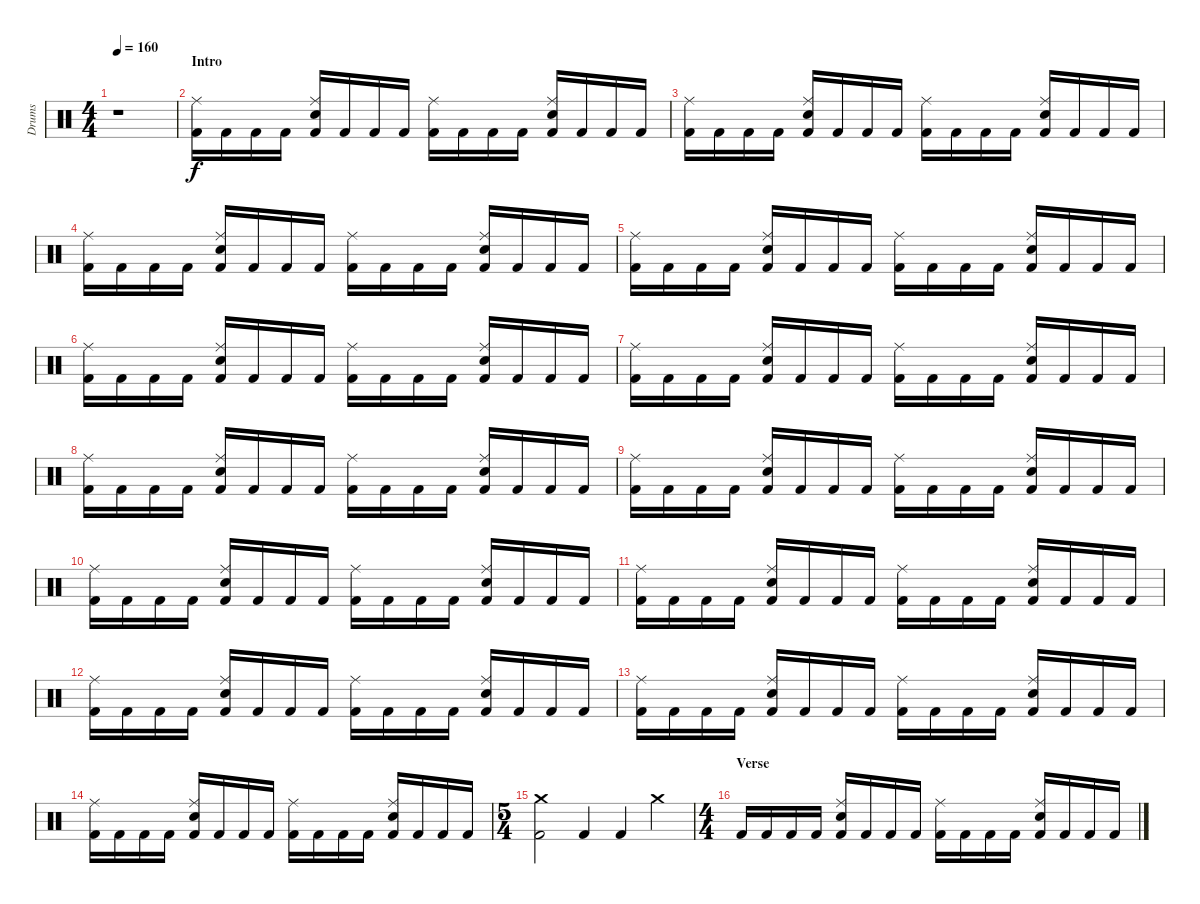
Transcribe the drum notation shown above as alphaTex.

\track ("Drums" "Drums") {instrument percussion}
\staff {score}
\articulation defaults
\ts (4 4)
\tempo 160
\clef neutral
\ks c
r.1{dy f} |
\section ("" "Intro")
("Kick (hit) 2" "Ride (middle)").16 "Kick (hit) 2".16 "Kick (hit) 2".16 "Kick (hit) 2".16 ("Kick (hit) 2" "Electric Snare (hit)" "Ride (middle)").16 "Kick (hit) 2".16 "Kick (hit) 2".16 "Kick (hit) 2".16 ("Kick (hit) 2" "Ride (middle)").16 "Kick (hit) 2".16 "Kick (hit) 2".16 "Kick (hit) 2".16 ("Kick (hit) 2" "Electric Snare (hit)" "Ride (middle)").16 "Kick (hit) 2".16 "Kick (hit) 2".16 "Kick (hit) 2".16 |
("Kick (hit) 2" "Ride (middle)").16 "Kick (hit) 2".16 "Kick (hit) 2".16 "Kick (hit) 2".16 ("Kick (hit) 2" "Electric Snare (hit)" "Ride (middle)").16 "Kick (hit) 2".16 "Kick (hit) 2".16 "Kick (hit) 2".16 ("Kick (hit) 2" "Ride (middle)").16 "Kick (hit) 2".16 "Kick (hit) 2".16 "Kick (hit) 2".16 ("Kick (hit) 2" "Electric Snare (hit)" "Ride (middle)").16 "Kick (hit) 2".16 "Kick (hit) 2".16 "Kick (hit) 2".16 |
("Kick (hit) 2" "Ride (middle)").16 "Kick (hit) 2".16 "Kick (hit) 2".16 "Kick (hit) 2".16 ("Kick (hit) 2" "Electric Snare (hit)" "Ride (middle)").16 "Kick (hit) 2".16 "Kick (hit) 2".16 "Kick (hit) 2".16 ("Kick (hit) 2" "Ride (middle)").16 "Kick (hit) 2".16 "Kick (hit) 2".16 "Kick (hit) 2".16 ("Kick (hit) 2" "Electric Snare (hit)" "Ride (middle)").16 "Kick (hit) 2".16 "Kick (hit) 2".16 "Kick (hit) 2".16 |
("Kick (hit) 2" "Ride (middle)").16 "Kick (hit) 2".16 "Kick (hit) 2".16 "Kick (hit) 2".16 ("Kick (hit) 2" "Electric Snare (hit)" "Ride (middle)").16 "Kick (hit) 2".16 "Kick (hit) 2".16 "Kick (hit) 2".16 ("Kick (hit) 2" "Ride (middle)").16 "Kick (hit) 2".16 "Kick (hit) 2".16 "Kick (hit) 2".16 ("Kick (hit) 2" "Electric Snare (hit)" "Ride (middle)").16 "Kick (hit) 2".16 "Kick (hit) 2".16 "Kick (hit) 2".16 |
("Kick (hit) 2" "Ride (middle)").16 "Kick (hit) 2".16 "Kick (hit) 2".16 "Kick (hit) 2".16 ("Kick (hit) 2" "Electric Snare (hit)" "Ride (middle)").16 "Kick (hit) 2".16 "Kick (hit) 2".16 "Kick (hit) 2".16 ("Kick (hit) 2" "Ride (middle)").16 "Kick (hit) 2".16 "Kick (hit) 2".16 "Kick (hit) 2".16 ("Kick (hit) 2" "Electric Snare (hit)" "Ride (middle)").16 "Kick (hit) 2".16 "Kick (hit) 2".16 "Kick (hit) 2".16 |
("Kick (hit) 2" "Ride (middle)").16 "Kick (hit) 2".16 "Kick (hit) 2".16 "Kick (hit) 2".16 ("Kick (hit) 2" "Electric Snare (hit)" "Ride (middle)").16 "Kick (hit) 2".16 "Kick (hit) 2".16 "Kick (hit) 2".16 ("Kick (hit) 2" "Ride (middle)").16 "Kick (hit) 2".16 "Kick (hit) 2".16 "Kick (hit) 2".16 ("Kick (hit) 2" "Electric Snare (hit)" "Ride (middle)").16 "Kick (hit) 2".16 "Kick (hit) 2".16 "Kick (hit) 2".16 |
("Kick (hit) 2" "Ride (middle)").16 "Kick (hit) 2".16 "Kick (hit) 2".16 "Kick (hit) 2".16 ("Kick (hit) 2" "Electric Snare (hit)" "Ride (middle)").16 "Kick (hit) 2".16 "Kick (hit) 2".16 "Kick (hit) 2".16 ("Kick (hit) 2" "Ride (middle)").16 "Kick (hit) 2".16 "Kick (hit) 2".16 "Kick (hit) 2".16 ("Kick (hit) 2" "Electric Snare (hit)" "Ride (middle)").16 "Kick (hit) 2".16 "Kick (hit) 2".16 "Kick (hit) 2".16 |
("Kick (hit) 2" "Ride (middle)").16 "Kick (hit) 2".16 "Kick (hit) 2".16 "Kick (hit) 2".16 ("Kick (hit) 2" "Electric Snare (hit)" "Ride (middle)").16 "Kick (hit) 2".16 "Kick (hit) 2".16 "Kick (hit) 2".16 ("Kick (hit) 2" "Ride (middle)").16 "Kick (hit) 2".16 "Kick (hit) 2".16 "Kick (hit) 2".16 ("Kick (hit) 2" "Electric Snare (hit)" "Ride (middle)").16 "Kick (hit) 2".16 "Kick (hit) 2".16 "Kick (hit) 2".16 |
("Kick (hit) 2" "Ride (middle)").16 "Kick (hit) 2".16 "Kick (hit) 2".16 "Kick (hit) 2".16 ("Kick (hit) 2" "Electric Snare (hit)" "Ride (middle)").16 "Kick (hit) 2".16 "Kick (hit) 2".16 "Kick (hit) 2".16 ("Kick (hit) 2" "Ride (middle)").16 "Kick (hit) 2".16 "Kick (hit) 2".16 "Kick (hit) 2".16 ("Kick (hit) 2" "Electric Snare (hit)" "Ride (middle)").16 "Kick (hit) 2".16 "Kick (hit) 2".16 "Kick (hit) 2".16 |
("Kick (hit) 2" "Ride (middle)").16 "Kick (hit) 2".16 "Kick (hit) 2".16 "Kick (hit) 2".16 ("Kick (hit) 2" "Electric Snare (hit)" "Ride (middle)").16 "Kick (hit) 2".16 "Kick (hit) 2".16 "Kick (hit) 2".16 ("Kick (hit) 2" "Ride (middle)").16 "Kick (hit) 2".16 "Kick (hit) 2".16 "Kick (hit) 2".16 ("Kick (hit) 2" "Electric Snare (hit)" "Ride (middle)").16 "Kick (hit) 2".16 "Kick (hit) 2".16 "Kick (hit) 2".16 |
("Kick (hit) 2" "Ride (middle)").16 "Kick (hit) 2".16 "Kick (hit) 2".16 "Kick (hit) 2".16 ("Kick (hit) 2" "Electric Snare (hit)" "Ride (middle)").16 "Kick (hit) 2".16 "Kick (hit) 2".16 "Kick (hit) 2".16 ("Kick (hit) 2" "Ride (middle)").16 "Kick (hit) 2".16 "Kick (hit) 2".16 "Kick (hit) 2".16 ("Kick (hit) 2" "Electric Snare (hit)" "Ride (middle)").16 "Kick (hit) 2".16 "Kick (hit) 2".16 "Kick (hit) 2".16 |
("Kick (hit) 2" "Ride (middle)").16 "Kick (hit) 2".16 "Kick (hit) 2".16 "Kick (hit) 2".16 ("Kick (hit) 2" "Electric Snare (hit)" "Ride (middle)").16 "Kick (hit) 2".16 "Kick (hit) 2".16 "Kick (hit) 2".16 ("Kick (hit) 2" "Ride (middle)").16 "Kick (hit) 2".16 "Kick (hit) 2".16 "Kick (hit) 2".16 ("Kick (hit) 2" "Electric Snare (hit)" "Ride (middle)").16 "Kick (hit) 2".16 "Kick (hit) 2".16 "Kick (hit) 2".16 |
("Kick (hit) 2" "Ride (middle)").16 "Kick (hit) 2".16 "Kick (hit) 2".16 "Kick (hit) 2".16 ("Kick (hit) 2" "Electric Snare (hit)" "Ride (middle)").16 "Kick (hit) 2".16 "Kick (hit) 2".16 "Kick (hit) 2".16 ("Kick (hit) 2" "Ride (middle)").16 "Kick (hit) 2".16 "Kick (hit) 2".16 "Kick (hit) 2".16 ("Kick (hit) 2" "Electric Snare (hit)" "Ride (middle)").16 "Kick (hit) 2".16 "Kick (hit) 2".16 "Kick (hit) 2".16 |
\ts (5 4)
("Kick (hit) 2" "Crash medium (hit)").2 "Kick (hit) 2".4 "Kick (hit) 2".4 "Crash medium (hit)".4 |
\ts (4 4)
\section ("" "Verse")
"Kick (hit) 2".16 "Kick (hit) 2".16 "Kick (hit) 2".16 "Kick (hit) 2".16 ("Kick (hit) 2" "Electric Snare (hit)" "Ride (middle)").16 "Kick (hit) 2".16 "Kick (hit) 2".16 "Kick (hit) 2".16 ("Kick (hit) 2" "Ride (middle)").16 "Kick (hit) 2".16 "Kick (hit) 2".16 "Kick (hit) 2".16 ("Kick (hit) 2" "Electric Snare (hit)" "Ride (middle)").16 "Kick (hit) 2".16 "Kick (hit) 2".16 "Kick (hit) 2".16
